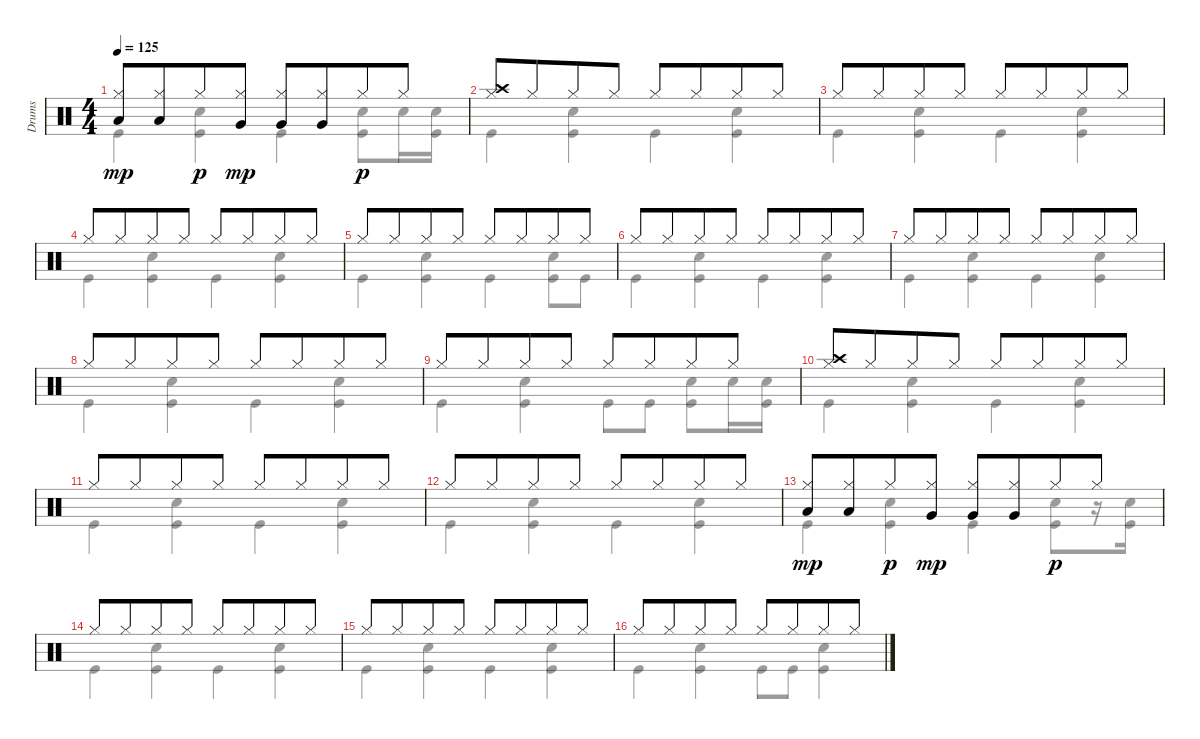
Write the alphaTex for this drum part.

\track ("Drums" "Drums") {instrument percussion}
\staff {score}
\articulation defaults
\voice
\ts (4 4)
\tempo 125
\clef neutral
\ks c
("Hi-Hat (closed)" "Low Tom (hit)").8{dy mp} ("Hi-Hat (closed)" "Low Tom (hit)").8{beam merge} "Hi-Hat (closed)".8{dy p} ("Hi-Hat (closed)" "Very Low Tom (hit)").8{dy mp} ("Hi-Hat (closed)" "Very Low Tom (hit)").8 ("Hi-Hat (closed)" "Very Low Tom (hit)").8{beam merge} "Hi-Hat (closed)".8{dy p} "Hi-Hat (closed)".8 |
("Hi-Hat (closed)" "Crash high (hit)").8 "Hi-Hat (closed)".8{beam merge} "Hi-Hat (closed)".8 "Hi-Hat (closed)".8 "Hi-Hat (closed)".8 "Hi-Hat (closed)".8{beam merge} "Hi-Hat (closed)".8 "Hi-Hat (closed)".8 |
"Hi-Hat (closed)".8 "Hi-Hat (closed)".8{beam merge} "Hi-Hat (closed)".8 "Hi-Hat (closed)".8 "Hi-Hat (closed)".8 "Hi-Hat (closed)".8{beam merge} "Hi-Hat (closed)".8 "Hi-Hat (closed)".8 |
"Hi-Hat (closed)".8 "Hi-Hat (closed)".8{beam merge} "Hi-Hat (closed)".8 "Hi-Hat (closed)".8 "Hi-Hat (closed)".8 "Hi-Hat (closed)".8{beam merge} "Hi-Hat (closed)".8 "Hi-Hat (closed)".8 |
"Hi-Hat (closed)".8 "Hi-Hat (closed)".8{beam merge} "Hi-Hat (closed)".8 "Hi-Hat (closed)".8 "Hi-Hat (closed)".8 "Hi-Hat (closed)".8{beam merge} "Hi-Hat (closed)".8 "Hi-Hat (closed)".8 |
"Hi-Hat (closed)".8 "Hi-Hat (closed)".8{beam merge} "Hi-Hat (closed)".8 "Hi-Hat (closed)".8 "Hi-Hat (closed)".8 "Hi-Hat (closed)".8{beam merge} "Hi-Hat (closed)".8 "Hi-Hat (closed)".8 |
"Hi-Hat (closed)".8 "Hi-Hat (closed)".8{beam merge} "Hi-Hat (closed)".8 "Hi-Hat (closed)".8 "Hi-Hat (closed)".8 "Hi-Hat (closed)".8{beam merge} "Hi-Hat (closed)".8 "Hi-Hat (closed)".8 |
"Hi-Hat (closed)".8 "Hi-Hat (closed)".8{beam merge} "Hi-Hat (closed)".8 "Hi-Hat (closed)".8 "Hi-Hat (closed)".8 "Hi-Hat (closed)".8{beam merge} "Hi-Hat (closed)".8 "Hi-Hat (closed)".8 |
"Hi-Hat (closed)".8 "Hi-Hat (closed)".8{beam merge} "Hi-Hat (closed)".8 "Hi-Hat (closed)".8 "Hi-Hat (closed)".8 "Hi-Hat (closed)".8{beam merge} "Hi-Hat (closed)".8 "Hi-Hat (closed)".8 |
("Hi-Hat (closed)" "Crash high (hit)").8 "Hi-Hat (closed)".8{beam merge} "Hi-Hat (closed)".8 "Hi-Hat (closed)".8 "Hi-Hat (closed)".8 "Hi-Hat (closed)".8{beam merge} "Hi-Hat (closed)".8 "Hi-Hat (closed)".8 |
"Hi-Hat (closed)".8 "Hi-Hat (closed)".8{beam merge} "Hi-Hat (closed)".8 "Hi-Hat (closed)".8 "Hi-Hat (closed)".8 "Hi-Hat (closed)".8{beam merge} "Hi-Hat (closed)".8 "Hi-Hat (closed)".8 |
"Hi-Hat (closed)".8 "Hi-Hat (closed)".8{beam merge} "Hi-Hat (closed)".8 "Hi-Hat (closed)".8 "Hi-Hat (closed)".8 "Hi-Hat (closed)".8{beam merge} "Hi-Hat (closed)".8 "Hi-Hat (closed)".8 |
("Hi-Hat (closed)" "Low Tom (hit)").8{dy mp} ("Hi-Hat (closed)" "Low Tom (hit)").8{beam merge} "Hi-Hat (closed)".8{dy p} ("Hi-Hat (closed)" "Very Low Tom (hit)").8{dy mp} ("Hi-Hat (closed)" "Very Low Tom (hit)").8 ("Hi-Hat (closed)" "Very Low Tom (hit)").8{beam merge} "Hi-Hat (closed)".8{dy p} "Hi-Hat (closed)".8 |
"Hi-Hat (closed)".8 "Hi-Hat (closed)".8{beam merge} "Hi-Hat (closed)".8 "Hi-Hat (closed)".8 "Hi-Hat (closed)".8 "Hi-Hat (closed)".8{beam merge} "Hi-Hat (closed)".8 "Hi-Hat (closed)".8 |
"Hi-Hat (closed)".8 "Hi-Hat (closed)".8{beam merge} "Hi-Hat (closed)".8 "Hi-Hat (closed)".8 "Hi-Hat (closed)".8 "Hi-Hat (closed)".8{beam merge} "Hi-Hat (closed)".8 "Hi-Hat (closed)".8 |
"Hi-Hat (closed)".8 "Hi-Hat (closed)".8{beam merge} "Hi-Hat (closed)".8 "Hi-Hat (closed)".8 "Hi-Hat (closed)".8 "Hi-Hat (closed)".8{beam merge} "Hi-Hat (closed)".8 "Hi-Hat (closed)".8
\voice
\clef neutral
\ottava regular
\simile none
\ks c "Kick (hit)".4{dy mp}
("Snare (hit) 2" "Kick (hit)").4 "Kick (hit)".4 ("Snare (hit) 2" "Kick (hit)").8 "Snare (hit) 2".16 ("Snare (hit) 2" "Kick (hit)").16 |
"Kick (hit)".4 ("Snare (hit) 2" "Kick (hit)").4 "Kick (hit)".4 ("Snare (hit) 2" "Kick (hit)").4 |
"Kick (hit)".4 ("Snare (hit) 2" "Kick (hit)").4 "Kick (hit)".4 ("Snare (hit) 2" "Kick (hit)").4 |
"Kick (hit)".4 ("Snare (hit) 2" "Kick (hit)").4 "Kick (hit)".4 ("Snare (hit) 2" "Kick (hit)").4 |
"Kick (hit)".4 ("Snare (hit) 2" "Kick (hit)").4 "Kick (hit)".4 ("Snare (hit) 2" "Kick (hit)").8 "Kick (hit)".8 |
"Kick (hit)".4 ("Snare (hit) 2" "Kick (hit)").4 "Kick (hit)".4 ("Snare (hit) 2" "Kick (hit)").4 |
"Kick (hit)".4 ("Snare (hit) 2" "Kick (hit)").4 "Kick (hit)".4 ("Snare (hit) 2" "Kick (hit)").4 |
"Kick (hit)".4 ("Snare (hit) 2" "Kick (hit)").4 "Kick (hit)".4 ("Snare (hit) 2" "Kick (hit)").4 |
"Kick (hit)".4 ("Snare (hit) 2" "Kick (hit)").4 "Kick (hit)".8 "Kick (hit)".8 ("Snare (hit) 2" "Kick (hit)").8 "Snare (hit) 2".16 ("Snare (hit) 2" "Kick (hit)").16 |
"Kick (hit)".4 ("Snare (hit) 2" "Kick (hit)").4 "Kick (hit)".4 ("Snare (hit) 2" "Kick (hit)").4 |
"Kick (hit)".4 ("Snare (hit) 2" "Kick (hit)").4 "Kick (hit)".4 ("Snare (hit) 2" "Kick (hit)").4 |
"Kick (hit)".4 ("Snare (hit) 2" "Kick (hit)").4 "Kick (hit)".4 ("Snare (hit) 2" "Kick (hit)").4 |
"Kick (hit)".4 ("Snare (hit) 2" "Kick (hit)").4 "Kick (hit)".4 ("Snare (hit) 2" "Kick (hit)").8 r.16 ("Snare (hit) 2" "Kick (hit)").16 |
"Kick (hit)".4 ("Snare (hit) 2" "Kick (hit)").4 "Kick (hit)".4 ("Snare (hit) 2" "Kick (hit)").4 |
"Kick (hit)".4 ("Snare (hit) 2" "Kick (hit)").4 "Kick (hit)".4 ("Snare (hit) 2" "Kick (hit)").4 |
"Kick (hit)".4 ("Snare (hit) 2" "Kick (hit)").4 "Kick (hit)".8 "Kick (hit)".8 ("Snare (hit) 2" "Kick (hit)").4
